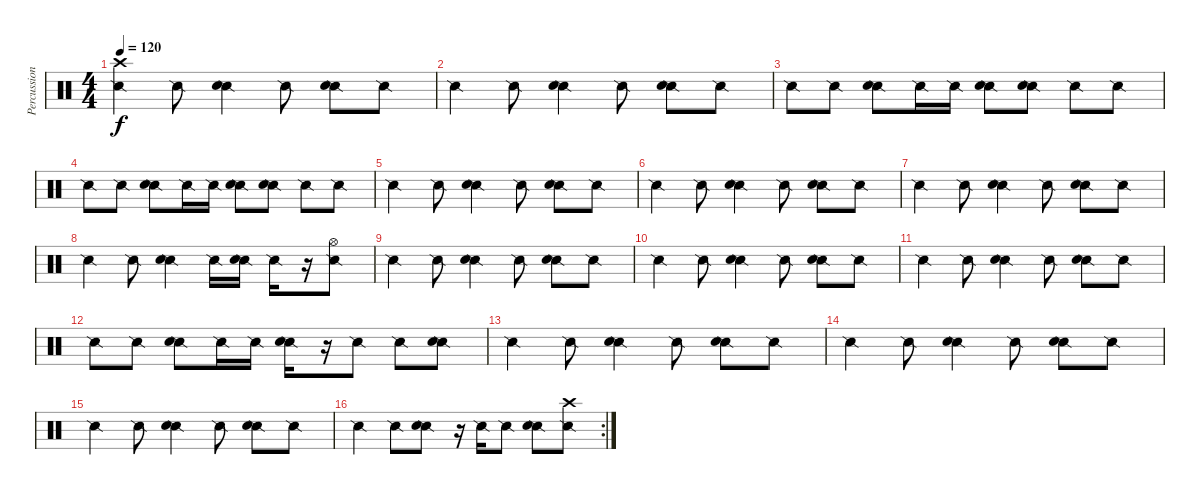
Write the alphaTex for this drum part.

\track ("Percussion" "Percussion") {instrument percussion}
\staff {score}
\articulation defaults
\ts (4 4)
\tempo 120
\clef neutral
\ks c
("Snare (side stick) 2" "Crash high (hit)").4{dy f} "Snare (side stick) 2".8 ("Snare (side stick) 2" "Snare (hit) 2").4 "Snare (side stick) 2".8 ("Snare (side stick) 2" "Electric Snare (hit)").8 "Snare (side stick) 2".8 |
"Snare (side stick) 2".4 "Snare (side stick) 2".8 ("Snare (side stick) 2" "Snare (hit) 2").4 "Snare (side stick) 2".8 ("Snare (side stick) 2" "Electric Snare (hit)").8 "Snare (side stick) 2".8 |
"Snare (side stick) 2".8 "Snare (side stick) 2".8 ("Snare (side stick) 2" "Snare (hit) 2").8 "Snare (side stick) 2".16 "Snare (side stick) 2".16 ("Snare (side stick) 2" "Electric Snare (hit)").8 ("Snare (side stick) 2" "Snare (hit) 2").8 "Snare (side stick) 2".8 "Snare (side stick) 2".8 |
"Snare (side stick) 2".8 "Snare (side stick) 2".8 ("Snare (side stick) 2" "Snare (hit) 2").8 "Snare (side stick) 2".16 "Snare (side stick) 2".16 ("Snare (side stick) 2" "Electric Snare (hit)").8 ("Snare (side stick) 2" "Snare (hit) 2").8 "Snare (side stick) 2".8 "Snare (side stick) 2".8 |
"Snare (side stick) 2".4 "Snare (side stick) 2".8 ("Snare (side stick) 2" "Snare (hit) 2").4 "Snare (side stick) 2".8 ("Snare (side stick) 2" "Electric Snare (hit)").8 "Snare (side stick) 2".8 |
"Snare (side stick) 2".4 "Snare (side stick) 2".8 ("Snare (side stick) 2" "Snare (hit) 2").4 "Snare (side stick) 2".8 ("Snare (side stick) 2" "Electric Snare (hit)").8 "Snare (side stick) 2".8 |
"Snare (side stick) 2".4 "Snare (side stick) 2".8 ("Snare (side stick) 2" "Snare (hit) 2").4 "Snare (side stick) 2".8 ("Snare (side stick) 2" "Electric Snare (hit)").8 "Snare (side stick) 2".8 |
"Snare (side stick) 2".4 "Snare (side stick) 2".8 ("Snare (side stick) 2" "Snare (hit) 2").4 "Snare (side stick) 2".16 ("Snare (side stick) 2" "Electric Snare (hit)").16 "Snare (side stick) 2".16 r.16 ("Snare (side stick) 2" "Hi-Hat (open)").8 |
"Snare (side stick) 2".4 "Snare (side stick) 2".8 ("Snare (side stick) 2" "Snare (hit) 2").4 "Snare (side stick) 2".8 ("Snare (side stick) 2" "Electric Snare (hit)").8 "Snare (side stick) 2".8 |
"Snare (side stick) 2".4 "Snare (side stick) 2".8 ("Snare (side stick) 2" "Snare (hit) 2").4 "Snare (side stick) 2".8 ("Snare (side stick) 2" "Electric Snare (hit)").8 "Snare (side stick) 2".8 |
"Snare (side stick) 2".4 "Snare (side stick) 2".8 ("Snare (side stick) 2" "Snare (hit) 2").4 "Snare (side stick) 2".8 ("Snare (side stick) 2" "Electric Snare (hit)").8 "Snare (side stick) 2".8 |
"Snare (side stick) 2".8 "Snare (side stick) 2".8 ("Snare (side stick) 2" "Electric Snare (hit)").8 "Snare (side stick) 2".16 "Snare (side stick) 2".16 ("Snare (side stick) 2" "Snare (hit) 2").16 r.16 "Snare (side stick) 2".8 "Snare (side stick) 2".8 ("Snare (side stick) 2" "Snare (hit) 2").8 |
"Snare (side stick) 2".4 "Snare (side stick) 2".8 ("Snare (side stick) 2" "Snare (hit) 2").4 "Snare (side stick) 2".8 ("Snare (side stick) 2" "Electric Snare (hit)").8 "Snare (side stick) 2".8 |
"Snare (side stick) 2".4 "Snare (side stick) 2".8 ("Snare (side stick) 2" "Snare (hit) 2").4 "Snare (side stick) 2".8 ("Snare (side stick) 2" "Electric Snare (hit)").8 "Snare (side stick) 2".8 |
"Snare (side stick) 2".4 "Snare (side stick) 2".8 ("Snare (side stick) 2" "Snare (hit) 2").4 "Snare (side stick) 2".8 ("Snare (side stick) 2" "Electric Snare (hit)").8 "Snare (side stick) 2".8 |
\rc 2 "Snare (side stick) 2".4 "Snare (side stick) 2".8
("Snare (side stick) 2" "Snare (hit) 2").8 r.16 "Snare (side stick) 2".16 "Snare (side stick) 2".8 ("Snare (side stick) 2" "Electric Snare (hit)").8 ("Snare (side stick) 2" "Crash high (hit)").8
